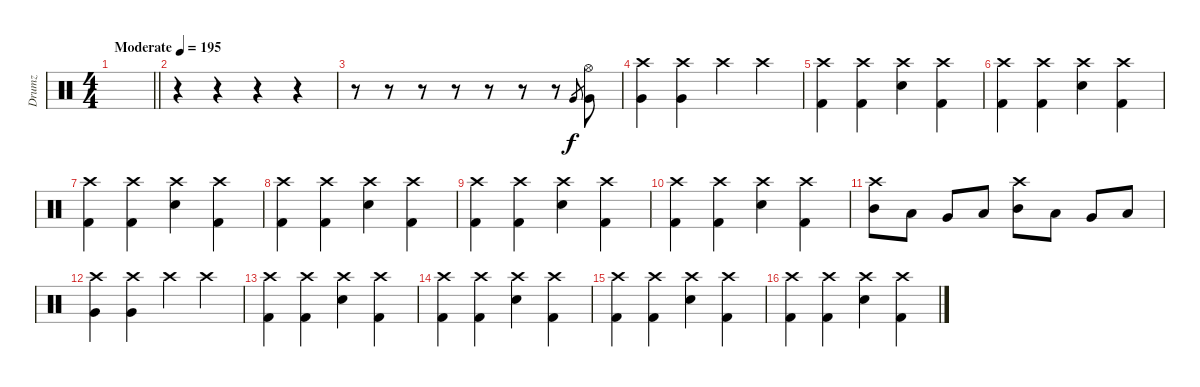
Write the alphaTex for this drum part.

\track ("Drumz" "Drumz") {instrument percussion}
\staff {score}
\articulation defaults
\ts (4 4)
\tempo (195 "Moderate")
\clef neutral
\barLineRight lightlight
\ks c
|
r.4 r.4 r.4 r.4 |
r.8 r.8 r.8 r.8 r.8 r.8 r.8 "Very Low Tom (hit)".8{gr} ("Very Low Tom (hit)" "Hi-Hat (open)").8 |
("Very Low Tom (hit)" "Crash high (hit)").4 ("Very Low Tom (hit)" "Crash high (hit)").4 "Crash high (hit)".4 "Crash high (hit)".4 |
("Crash high (hit)" "Kick (hit) 2").4 ("Crash high (hit)" "Kick (hit) 2").4 ("Crash high (hit)" "Snare (hit) 2").4 ("Crash high (hit)" "Kick (hit) 2").4 |
("Crash high (hit)" "Kick (hit) 2").4 ("Crash high (hit)" "Kick (hit) 2").4 ("Crash high (hit)" "Snare (hit) 2").4 ("Crash high (hit)" "Kick (hit) 2").4 |
("Crash high (hit)" "Kick (hit) 2").4 ("Crash high (hit)" "Kick (hit) 2").4 ("Crash high (hit)" "Snare (hit) 2").4 ("Crash high (hit)" "Kick (hit) 2").4 |
("Crash high (hit)" "Kick (hit) 2").4 ("Crash high (hit)" "Kick (hit) 2").4 ("Crash high (hit)" "Snare (hit) 2").4 ("Crash high (hit)" "Kick (hit) 2").4 |
("Crash high (hit)" "Kick (hit) 2").4 ("Crash high (hit)" "Kick (hit) 2").4 ("Crash high (hit)" "Snare (hit) 2").4 ("Crash high (hit)" "Kick (hit) 2").4 |
("Crash high (hit)" "Kick (hit) 2").4 ("Crash high (hit)" "Kick (hit) 2").4 ("Crash high (hit)" "Snare (hit) 2").4 ("Crash high (hit)" "Kick (hit) 2").4 |
("Crash high (hit)" "Mid Tom (hit)").8 "Low Tom (hit)".8 "Very Low Tom (hit)".8 "Low Floor Tom (hit)".8 ("Crash high (hit)" "Mid Tom (hit)").8 "Low Tom (hit)".8 "Very Low Tom (hit)".8 "Low Floor Tom (hit)".8 |
("Very Low Tom (hit)" "Crash high (hit)").4 ("Very Low Tom (hit)" "Crash high (hit)").4 "Crash high (hit)".4 "Crash high (hit)".4 |
("Crash high (hit)" "Kick (hit) 2").4 ("Crash high (hit)" "Kick (hit) 2").4 ("Crash high (hit)" "Snare (hit) 2").4 ("Crash high (hit)" "Kick (hit) 2").4 |
("Crash high (hit)" "Kick (hit) 2").4 ("Crash high (hit)" "Kick (hit) 2").4 ("Crash high (hit)" "Snare (hit) 2").4 ("Crash high (hit)" "Kick (hit) 2").4 |
("Crash high (hit)" "Kick (hit) 2").4 ("Crash high (hit)" "Kick (hit) 2").4 ("Crash high (hit)" "Snare (hit) 2").4 ("Crash high (hit)" "Kick (hit) 2").4 |
("Crash high (hit)" "Kick (hit) 2").4 ("Crash high (hit)" "Kick (hit) 2").4 ("Crash high (hit)" "Snare (hit) 2").4 ("Crash high (hit)" "Kick (hit) 2").4
